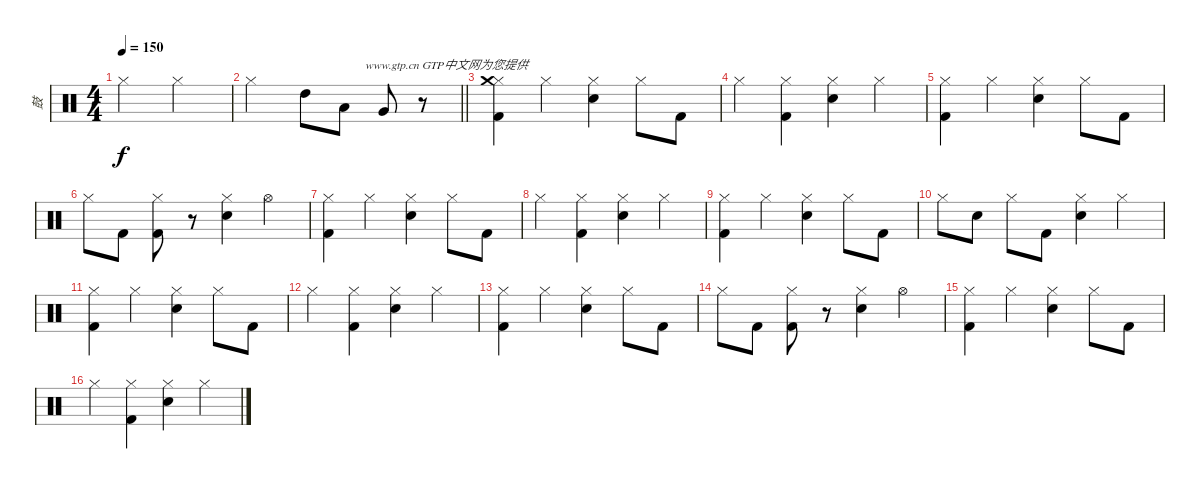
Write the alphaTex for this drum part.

\track ("鼓" "鼓") {instrument percussion}
\staff {score}
\articulation defaults
\ts (4 4)
\tempo 150
\clef neutral
\ks c "Hi-Hat (closed)".2{dy f} "Hi-Hat (closed)".2
|
\barLineRight lightlight "Hi-Hat (closed)".2 "High Tom (hit)".8{txt "                    www.gtp.cn GTP中文网为您提供"} "Low Tom (hit)".8 "Very Low Tom (hit)".8
r.8 |
("Hi-Hat (closed)" "Crash medium (hit)" "Kick (hit) 2").4 "Hi-Hat (closed)".4 ("Hi-Hat (closed)" "Electric Snare (hit)").4 "Hi-Hat (closed)".8 "Kick (hit) 2".8 |
"Hi-Hat (closed)".4 ("Hi-Hat (closed)" "Kick (hit) 2").4 ("Hi-Hat (closed)" "Electric Snare (hit)").4 "Hi-Hat (closed)".4 |
("Hi-Hat (closed)" "Kick (hit) 2").4 "Hi-Hat (closed)".4 ("Hi-Hat (closed)" "Electric Snare (hit)").4 "Hi-Hat (closed)".8 "Kick (hit) 2".8 |
"Hi-Hat (closed)".8 "Kick (hit) 2".8 ("Hi-Hat (closed)" "Kick (hit) 2").8 r.8 ("Hi-Hat (closed)" "Electric Snare (hit)").4 "Hi-Hat (open)".4 |
("Hi-Hat (closed)" "Kick (hit) 2").4 "Hi-Hat (closed)".4 ("Hi-Hat (closed)" "Electric Snare (hit)").4 "Hi-Hat (closed)".8 "Kick (hit) 2".8 |
"Hi-Hat (closed)".4 ("Hi-Hat (closed)" "Kick (hit) 2").4 ("Hi-Hat (closed)" "Electric Snare (hit)").4 "Hi-Hat (closed)".4 |
("Hi-Hat (closed)" "Kick (hit) 2").4 "Hi-Hat (closed)".4 ("Hi-Hat (closed)" "Electric Snare (hit)").4 "Hi-Hat (closed)".8 "Kick (hit) 2".8 |
"Hi-Hat (closed)".8 "Electric Snare (hit)".8 "Hi-Hat (closed)".8 "Kick (hit) 2".8 ("Hi-Hat (closed)" "Electric Snare (hit)").4 "Hi-Hat (closed)".4 |
("Hi-Hat (closed)" "Kick (hit) 2").4 "Hi-Hat (closed)".4 ("Hi-Hat (closed)" "Electric Snare (hit)").4 "Hi-Hat (closed)".8 "Kick (hit) 2".8 |
"Hi-Hat (closed)".4 ("Hi-Hat (closed)" "Kick (hit) 2").4 ("Hi-Hat (closed)" "Electric Snare (hit)").4 "Hi-Hat (closed)".4 |
("Hi-Hat (closed)" "Kick (hit) 2").4 "Hi-Hat (closed)".4 ("Hi-Hat (closed)" "Electric Snare (hit)").4 "Hi-Hat (closed)".8 "Kick (hit) 2".8 |
"Hi-Hat (closed)".8 "Kick (hit) 2".8 ("Hi-Hat (closed)" "Kick (hit) 2").8 r.8 ("Hi-Hat (closed)" "Electric Snare (hit)").4 "Hi-Hat (open)".4 |
("Hi-Hat (closed)" "Kick (hit) 2").4 "Hi-Hat (closed)".4 ("Hi-Hat (closed)" "Electric Snare (hit)").4 "Hi-Hat (closed)".8 "Kick (hit) 2".8 |
"Hi-Hat (closed)".4 ("Hi-Hat (closed)" "Kick (hit) 2").4 ("Hi-Hat (closed)" "Electric Snare (hit)").4 "Hi-Hat (closed)".4
